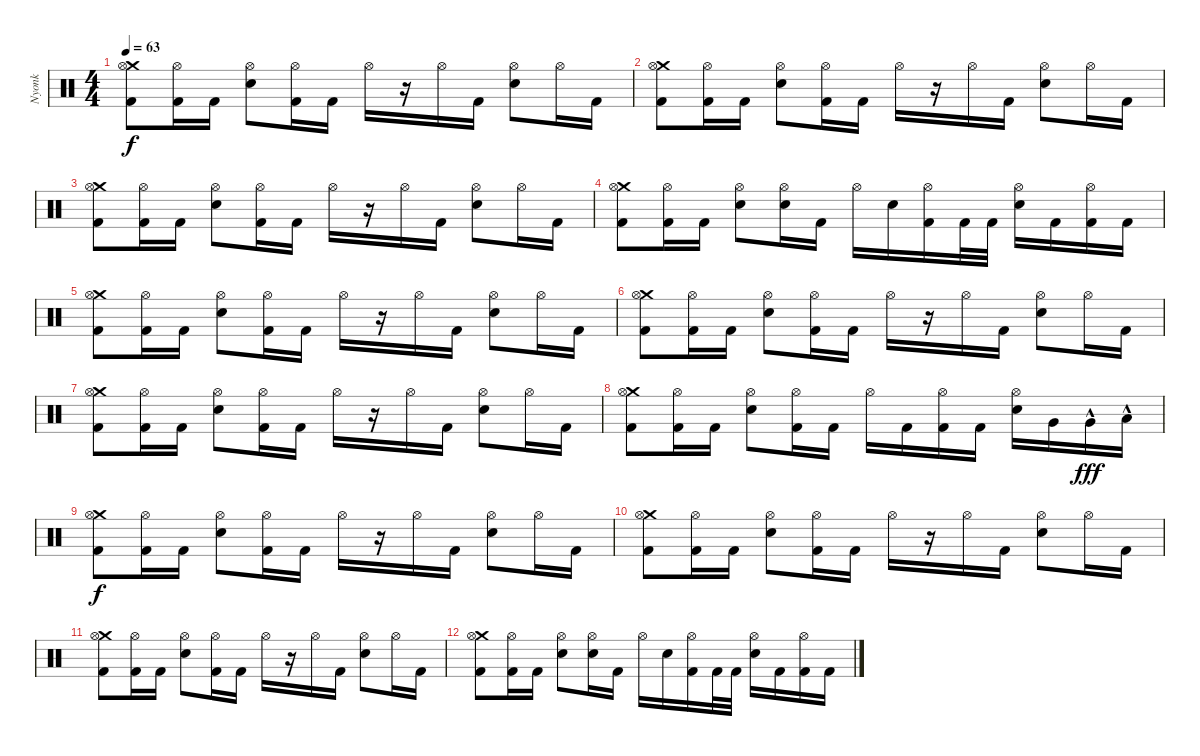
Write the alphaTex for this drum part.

\track ("Nyonk" "Nyonk") {instrument percussion}
\staff {score}
\articulation defaults
\ts (4 4)
\tempo 63
\clef neutral
\ks c
("Crash medium (hit)" "Hi-Hat (open)" "Kick (hit) 2").8{dy f} ("Hi-Hat (open)" "Kick (hit) 2").16 "Kick (hit) 2".16 ("Hi-Hat (open)" "Electric Snare (hit)").8 ("Hi-Hat (open)" "Kick (hit) 2").16 "Kick (hit) 2".16 "Hi-Hat (open)".16 r.16 "Hi-Hat (open)".16 "Kick (hit) 2".16 ("Hi-Hat (open)" "Electric Snare (hit)").8 "Hi-Hat (open)".16 "Kick (hit) 2".16 |
("Crash medium (hit)" "Hi-Hat (open)" "Kick (hit) 2").8 ("Hi-Hat (open)" "Kick (hit) 2").16 "Kick (hit) 2".16 ("Hi-Hat (open)" "Electric Snare (hit)").8 ("Hi-Hat (open)" "Kick (hit) 2").16 "Kick (hit) 2".16 "Hi-Hat (open)".16 r.16 "Hi-Hat (open)".16 "Kick (hit) 2".16 ("Hi-Hat (open)" "Electric Snare (hit)").8 "Hi-Hat (open)".16 "Kick (hit) 2".16 |
("Crash medium (hit)" "Hi-Hat (open)" "Kick (hit) 2").8 ("Hi-Hat (open)" "Kick (hit) 2").16 "Kick (hit) 2".16 ("Hi-Hat (open)" "Electric Snare (hit)").8 ("Hi-Hat (open)" "Kick (hit) 2").16 "Kick (hit) 2".16 "Hi-Hat (open)".16 r.16 "Hi-Hat (open)".16 "Kick (hit) 2".16 ("Hi-Hat (open)" "Electric Snare (hit)").8 "Hi-Hat (open)".16 "Kick (hit) 2".16 |
("Crash medium (hit)" "Hi-Hat (open)" "Kick (hit) 2").8 ("Hi-Hat (open)" "Kick (hit) 2").16 "Kick (hit) 2".16 ("Hi-Hat (open)" "Electric Snare (hit)").8 ("Hi-Hat (open)" "Electric Snare (hit)").16 "Kick (hit) 2".16 "Hi-Hat (open)".16 "Electric Snare (hit)".16 ("Hi-Hat (open)" "Kick (hit) 2").16 "Kick (hit) 2".32 "Kick (hit) 2".32 ("Hi-Hat (open)" "Electric Snare (hit)").16 "Kick (hit) 2".16 ("Hi-Hat (open)" "Kick (hit) 2").16 "Kick (hit) 2".16 |
("Crash medium (hit)" "Hi-Hat (open)" "Kick (hit) 2").8 ("Hi-Hat (open)" "Kick (hit) 2").16 "Kick (hit) 2".16 ("Hi-Hat (open)" "Electric Snare (hit)").8 ("Hi-Hat (open)" "Kick (hit) 2").16 "Kick (hit) 2".16 "Hi-Hat (open)".16 r.16 "Hi-Hat (open)".16 "Kick (hit) 2".16 ("Hi-Hat (open)" "Electric Snare (hit)").8 "Hi-Hat (open)".16 "Kick (hit) 2".16 |
("Crash medium (hit)" "Hi-Hat (open)" "Kick (hit) 2").8 ("Hi-Hat (open)" "Kick (hit) 2").16 "Kick (hit) 2".16 ("Hi-Hat (open)" "Electric Snare (hit)").8 ("Hi-Hat (open)" "Kick (hit) 2").16 "Kick (hit) 2".16 "Hi-Hat (open)".16 r.16 "Hi-Hat (open)".16 "Kick (hit) 2".16 ("Hi-Hat (open)" "Electric Snare (hit)").8 "Hi-Hat (open)".16 "Kick (hit) 2".16 |
("Crash medium (hit)" "Hi-Hat (open)" "Kick (hit) 2").8 ("Hi-Hat (open)" "Kick (hit) 2").16 "Kick (hit) 2".16 ("Hi-Hat (open)" "Electric Snare (hit)").8 ("Hi-Hat (open)" "Kick (hit) 2").16 "Kick (hit) 2".16 "Hi-Hat (open)".16 r.16 "Hi-Hat (open)".16 "Kick (hit) 2".16 ("Hi-Hat (open)" "Electric Snare (hit)").8 "Hi-Hat (open)".16 "Kick (hit) 2".16 |
("Crash medium (hit)" "Hi-Hat (open)" "Kick (hit) 2").8 ("Hi-Hat (open)" "Kick (hit) 2").16 "Kick (hit) 2".16 ("Hi-Hat (open)" "Electric Snare (hit)").8 ("Hi-Hat (open)" "Kick (hit) 2").16 "Kick (hit) 2".16 "Hi-Hat (open)".16 "Kick (hit) 2".16 ("Hi-Hat (open)" "Kick (hit) 2").16 "Kick (hit) 2".16 ("Hi-Hat (open)" "Electric Snare (hit)").16 "Very Low Tom (hit)".16 "Very Low Tom (hit)"{hac}.16{dy fff} "Low Floor Tom (hit)"{hac}.16 |
("Crash medium (hit)" "Hi-Hat (open)" "Kick (hit) 2").8{dy f} ("Hi-Hat (open)" "Kick (hit) 2").16 "Kick (hit) 2".16 ("Hi-Hat (open)" "Electric Snare (hit)").8 ("Hi-Hat (open)" "Kick (hit) 2").16 "Kick (hit) 2".16 "Hi-Hat (open)".16 r.16 "Hi-Hat (open)".16 "Kick (hit) 2".16 ("Hi-Hat (open)" "Electric Snare (hit)").8 "Hi-Hat (open)".16 "Kick (hit) 2".16 |
("Crash medium (hit)" "Hi-Hat (open)" "Kick (hit) 2").8 ("Hi-Hat (open)" "Kick (hit) 2").16 "Kick (hit) 2".16 ("Hi-Hat (open)" "Electric Snare (hit)").8 ("Hi-Hat (open)" "Kick (hit) 2").16 "Kick (hit) 2".16 "Hi-Hat (open)".16 r.16 "Hi-Hat (open)".16 "Kick (hit) 2".16 ("Hi-Hat (open)" "Electric Snare (hit)").8 "Hi-Hat (open)".16 "Kick (hit) 2".16 |
("Crash medium (hit)" "Hi-Hat (open)" "Kick (hit) 2").8 ("Hi-Hat (open)" "Kick (hit) 2").16 "Kick (hit) 2".16 ("Hi-Hat (open)" "Electric Snare (hit)").8 ("Hi-Hat (open)" "Kick (hit) 2").16 "Kick (hit) 2".16 "Hi-Hat (open)".16 r.16 "Hi-Hat (open)".16 "Kick (hit) 2".16 ("Hi-Hat (open)" "Electric Snare (hit)").8 "Hi-Hat (open)".16 "Kick (hit) 2".16 |
("Crash medium (hit)" "Hi-Hat (open)" "Kick (hit) 2").8 ("Hi-Hat (open)" "Kick (hit) 2").16 "Kick (hit) 2".16 ("Hi-Hat (open)" "Electric Snare (hit)").8 ("Hi-Hat (open)" "Electric Snare (hit)").16 "Kick (hit) 2".16 "Hi-Hat (open)".16 "Electric Snare (hit)".16 ("Hi-Hat (open)" "Kick (hit) 2").16 "Kick (hit) 2".32 "Kick (hit) 2".32 ("Hi-Hat (open)" "Electric Snare (hit)").16 "Kick (hit) 2".16 ("Hi-Hat (open)" "Kick (hit) 2").16 "Kick (hit) 2".16
